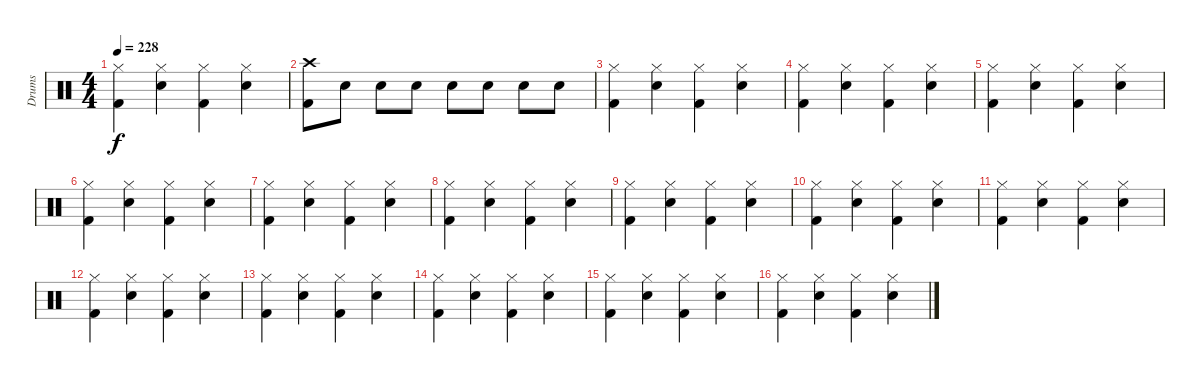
\track ("Drums" "Drums") {instrument percussion}
\staff {score}
\articulation defaults
\ts (4 4)
\tempo 228
\clef neutral
\ks c
("Hi-Hat (closed)" "Kick (hit) 2").4{dy f} ("Hi-Hat (closed)" "Electric Snare (hit)").4 ("Hi-Hat (closed)" "Kick (hit) 2").4 ("Hi-Hat (closed)" "Electric Snare (hit)").4 |
("Crash high (hit)" "Kick (hit) 2").8 "Electric Snare (hit)".8 "Electric Snare (hit)".8 "Electric Snare (hit)".8 "Electric Snare (hit)".8 "Electric Snare (hit)".8 "Electric Snare (hit)".8 "Electric Snare (hit)".8 |
("Hi-Hat (closed)" "Kick (hit) 2").4 ("Hi-Hat (closed)" "Electric Snare (hit)").4 ("Hi-Hat (closed)" "Kick (hit) 2").4 ("Hi-Hat (closed)" "Electric Snare (hit)").4 |
("Hi-Hat (closed)" "Kick (hit) 2").4 ("Hi-Hat (closed)" "Electric Snare (hit)").4 ("Hi-Hat (closed)" "Kick (hit) 2").4 ("Hi-Hat (closed)" "Electric Snare (hit)").4 |
("Hi-Hat (closed)" "Kick (hit) 2").4 ("Hi-Hat (closed)" "Electric Snare (hit)").4 ("Hi-Hat (closed)" "Kick (hit) 2").4 ("Hi-Hat (closed)" "Electric Snare (hit)").4 |
("Hi-Hat (closed)" "Kick (hit) 2").4 ("Hi-Hat (closed)" "Electric Snare (hit)").4 ("Hi-Hat (closed)" "Kick (hit) 2").4 ("Hi-Hat (closed)" "Electric Snare (hit)").4 |
("Hi-Hat (closed)" "Kick (hit) 2").4 ("Hi-Hat (closed)" "Electric Snare (hit)").4 ("Hi-Hat (closed)" "Kick (hit) 2").4 ("Hi-Hat (closed)" "Electric Snare (hit)").4 |
("Hi-Hat (closed)" "Kick (hit) 2").4 ("Hi-Hat (closed)" "Electric Snare (hit)").4 ("Hi-Hat (closed)" "Kick (hit) 2").4 ("Hi-Hat (closed)" "Electric Snare (hit)").4 |
("Hi-Hat (closed)" "Kick (hit) 2").4 ("Hi-Hat (closed)" "Electric Snare (hit)").4 ("Hi-Hat (closed)" "Kick (hit) 2").4 ("Hi-Hat (closed)" "Electric Snare (hit)").4 |
("Hi-Hat (closed)" "Kick (hit) 2").4 ("Hi-Hat (closed)" "Electric Snare (hit)").4 ("Hi-Hat (closed)" "Kick (hit) 2").4 ("Hi-Hat (closed)" "Electric Snare (hit)").4 |
("Hi-Hat (closed)" "Kick (hit) 2").4 ("Hi-Hat (closed)" "Electric Snare (hit)").4 ("Hi-Hat (closed)" "Kick (hit) 2").4 ("Hi-Hat (closed)" "Electric Snare (hit)").4 |
("Hi-Hat (closed)" "Kick (hit) 2").4 ("Hi-Hat (closed)" "Electric Snare (hit)").4 ("Hi-Hat (closed)" "Kick (hit) 2").4 ("Hi-Hat (closed)" "Electric Snare (hit)").4 |
("Hi-Hat (closed)" "Kick (hit) 2").4 ("Hi-Hat (closed)" "Electric Snare (hit)").4 ("Hi-Hat (closed)" "Kick (hit) 2").4 ("Hi-Hat (closed)" "Electric Snare (hit)").4 |
("Hi-Hat (closed)" "Kick (hit) 2").4 ("Hi-Hat (closed)" "Electric Snare (hit)").4 ("Hi-Hat (closed)" "Kick (hit) 2").4 ("Hi-Hat (closed)" "Electric Snare (hit)").4 |
("Hi-Hat (closed)" "Kick (hit) 2").4 ("Hi-Hat (closed)" "Electric Snare (hit)").4 ("Hi-Hat (closed)" "Kick (hit) 2").4 ("Hi-Hat (closed)" "Electric Snare (hit)").4 |
("Hi-Hat (closed)" "Kick (hit) 2").4 ("Hi-Hat (closed)" "Electric Snare (hit)").4 ("Hi-Hat (closed)" "Kick (hit) 2").4 ("Hi-Hat (closed)" "Electric Snare (hit)").4
